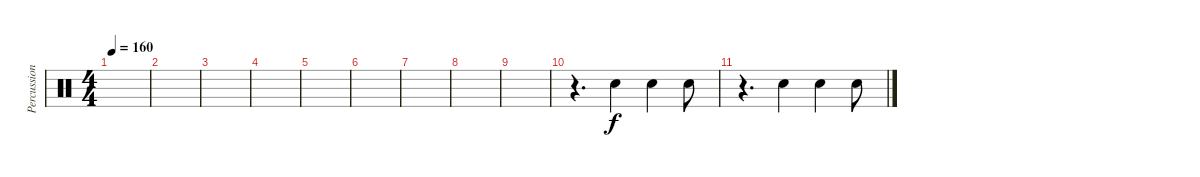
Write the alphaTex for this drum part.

\track ("Percussions" "Percussion") {instrument percussion}
\staff {score}
\articulation defaults
\ts (4 4)
\tempo 160
\clef neutral
\ks c
|
|
|
|
|
|
|
|
|
r.4{d} "Snare (hit) 2".4 "Snare (hit) 2".4 "Snare (hit) 2".8 |
r.4{d} "Snare (hit) 2".4 "Snare (hit) 2".4 "Snare (hit) 2".8
